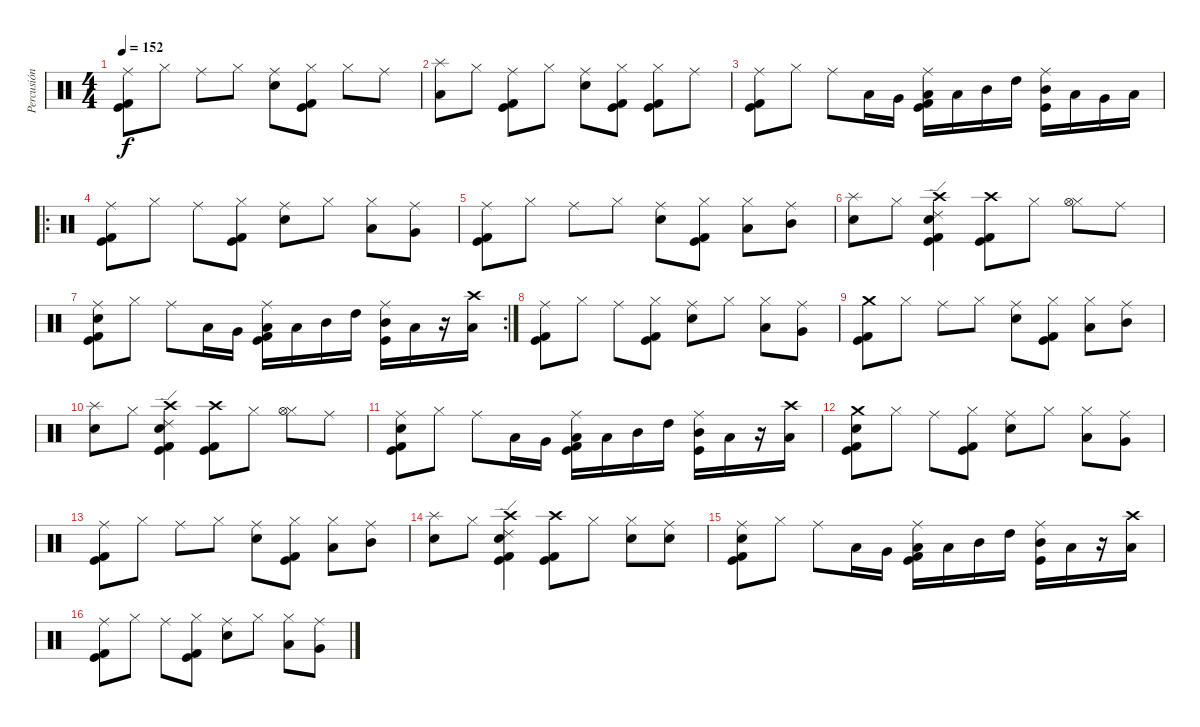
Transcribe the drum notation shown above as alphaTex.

\track ("Percusión" "Percusión") {instrument percussion}
\staff {score}
\articulation defaults
\ts (4 4)
\tempo 152
\clef neutral
\ks c
("Ride (middle)" "Kick (hit) 2" "Kick (hit)").8{dy f} "Hi-Hat (closed)".8 "Ride (middle)".8 "Hi-Hat (closed)".8 ("Ride (middle)" "Electric Snare (hit)").8 ("Hi-Hat (closed)" "Kick (hit) 2" "Kick (hit)").8 "Hi-Hat (closed)".8 "Ride (middle)".8 |
("Splash (hit)" "Low Tom (hit)").8 "Hi-Hat (closed)".8 ("Ride (middle)" "Kick (hit) 2" "Kick (hit)").8 "Hi-Hat (closed)".8 ("Ride (middle)" "Electric Snare (hit)").8 ("Hi-Hat (closed)" "Kick (hit) 2" "Kick (hit)").8 ("Hi-Hat (closed)" "Kick (hit) 2" "Kick (hit)").8 "Ride (middle)".8 |
("Ride (middle)" "Kick (hit) 2" "Kick (hit)").8 "Hi-Hat (closed)".8 "Ride (middle)".8 "Low Floor Tom (hit)".16 "Very Low Tom (hit)".16 ("Ride (middle)" "Low Tom (hit)" "Kick (hit) 2" "Kick (hit)").16 "Low Tom (hit)".16 "Mid Tom (hit)".16 "High Tom (hit)".16 ("Ride (middle)" "Mid Tom (hit)" "Kick (hit)").16 "Low Tom (hit)".16 "Very Low Tom (hit)".16 "Low Floor Tom (hit)".16 |
\ro
("Ride (middle)" "Kick (hit) 2" "Kick (hit)").8 "Hi-Hat (closed)".8 "Ride (middle)".8 ("Hi-Hat (closed)" "Kick (hit) 2" "Kick (hit)").8 ("Ride (middle)" "Electric Snare (hit)").8 "Hi-Hat (closed)".8 ("Hi-Hat (closed)" "Low Floor Tom (hit)").8 ("Ride (middle)" "Very Low Tom (hit)").8 |
("Ride (middle)" "Kick (hit) 2" "Kick (hit)").8 "Hi-Hat (closed)".8 "Ride (middle)".8 "Hi-Hat (closed)".8 ("Ride (middle)" "Electric Snare (hit)").8 ("Hi-Hat (closed)" "Kick (hit) 2" "Kick (hit)").8 ("Hi-Hat (closed)" "Low Tom (hit)").8 ("Ride (middle)" "Mid Tom (hit)").8 |
("Splash (hit)" "Electric Snare (hit)").8 "Hi-Hat (closed)".8 ("Ride (edge) 2" "Crash high (hit)" "Electric Snare (hit)" "Kick (hit) 2" "Kick (hit)").4 ("Crash high (hit)" "Kick (hit) 2" "Kick (hit)").8 "Hi-Hat (closed)".8 ("Hi-Hat (closed)" "Hi-Hat (open)").8 "Ride (middle)".8 |
\rc 2
("Ride (middle)" "Electric Snare (hit)" "Kick (hit) 2" "Kick (hit)").8 "Hi-Hat (closed)".8 "Ride (middle)".8 "Low Floor Tom (hit)".16 "Very Low Tom (hit)".16 ("Ride (middle)" "Low Tom (hit)" "Kick (hit) 2" "Kick (hit)").16 "Low Tom (hit)".16 "Mid Tom (hit)".16 "High Tom (hit)".16 ("Ride (middle)" "Mid Tom (hit)" "Kick (hit)").16 "Low Tom (hit)".16 r.16 ("Crash high (hit)" "Low Floor Tom (hit)").16 |
("Ride (middle)" "Kick (hit) 2" "Kick (hit)").8 "Hi-Hat (closed)".8 "Ride (middle)".8 ("Hi-Hat (closed)" "Kick (hit) 2" "Kick (hit)").8 ("Ride (middle)" "Electric Snare (hit)").8 "Hi-Hat (closed)".8 ("Hi-Hat (closed)" "Low Floor Tom (hit)").8 ("Ride (middle)" "Very Low Tom (hit)").8 |
("Crash medium (hit)" "Kick (hit) 2" "Kick (hit)").8 "Hi-Hat (closed)".8 "Ride (middle)".8 "Hi-Hat (closed)".8 ("Ride (middle)" "Electric Snare (hit)").8 ("Hi-Hat (closed)" "Kick (hit) 2" "Kick (hit)").8 ("Hi-Hat (closed)" "Low Tom (hit)").8 ("Ride (middle)" "Mid Tom (hit)").8 |
("Splash (hit)" "Electric Snare (hit)").8 "Hi-Hat (closed)".8 ("Ride (edge) 2" "Crash high (hit)" "Electric Snare (hit)" "Kick (hit) 2" "Kick (hit)").4 ("Crash high (hit)" "Kick (hit) 2" "Kick (hit)").8 "Hi-Hat (closed)".8 ("Hi-Hat (closed)" "Hi-Hat (open)").8 "Ride (middle)".8 |
("Ride (middle)" "Electric Snare (hit)" "Kick (hit) 2" "Kick (hit)").8 "Hi-Hat (closed)".8 "Ride (middle)".8 "Low Floor Tom (hit)".16 "Very Low Tom (hit)".16 ("Ride (middle)" "Low Tom (hit)" "Kick (hit) 2" "Kick (hit)").16 "Low Tom (hit)".16 "Mid Tom (hit)".16 "High Tom (hit)".16 ("Ride (middle)" "Mid Tom (hit)" "Kick (hit)").16 "Low Tom (hit)".16 r.16 ("Crash high (hit)" "Low Floor Tom (hit)").16 |
("Crash medium (hit)" "Electric Snare (hit)" "Kick (hit) 2" "Kick (hit)").8 "Hi-Hat (closed)".8 "Ride (middle)".8 ("Hi-Hat (closed)" "Kick (hit) 2" "Kick (hit)").8 ("Ride (middle)" "Electric Snare (hit)").8 "Hi-Hat (closed)".8 ("Hi-Hat (closed)" "Low Floor Tom (hit)").8 ("Ride (middle)" "Very Low Tom (hit)").8 |
("Ride (middle)" "Kick (hit) 2" "Kick (hit)").8 "Hi-Hat (closed)".8 "Ride (middle)".8 "Hi-Hat (closed)".8 ("Ride (middle)" "Electric Snare (hit)").8 ("Hi-Hat (closed)" "Kick (hit) 2" "Kick (hit)").8 ("Hi-Hat (closed)" "Low Tom (hit)").8 ("Ride (middle)" "Mid Tom (hit)").8 |
("Splash (hit)" "Electric Snare (hit)").8 "Hi-Hat (closed)".8 ("Ride (edge) 2" "Crash high (hit)" "Electric Snare (hit)" "Kick (hit) 2" "Kick (hit)").4 ("Crash high (hit)" "Kick (hit) 2" "Kick (hit)").8 "Hi-Hat (closed)".8 ("Hi-Hat (closed)" "Electric Snare (hit)").8 ("Ride (middle)" "Electric Snare (hit)").8 |
("Ride (middle)" "Electric Snare (hit)" "Kick (hit) 2" "Kick (hit)").8 "Hi-Hat (closed)".8 "Ride (middle)".8 "Low Floor Tom (hit)".16 "Very Low Tom (hit)".16 ("Ride (middle)" "Low Tom (hit)" "Kick (hit) 2" "Kick (hit)").16 "Low Tom (hit)".16 "Mid Tom (hit)".16 "High Tom (hit)".16 ("Ride (middle)" "Mid Tom (hit)" "Kick (hit)").16 "Low Tom (hit)".16 r.16 ("Crash high (hit)" "Low Floor Tom (hit)").16 |
("Ride (middle)" "Kick (hit) 2" "Kick (hit)").8 "Hi-Hat (closed)".8 "Ride (middle)".8 ("Hi-Hat (closed)" "Kick (hit) 2" "Kick (hit)").8 ("Ride (middle)" "Electric Snare (hit)").8 "Hi-Hat (closed)".8 ("Hi-Hat (closed)" "Low Floor Tom (hit)").8 ("Ride (middle)" "Very Low Tom (hit)").8
